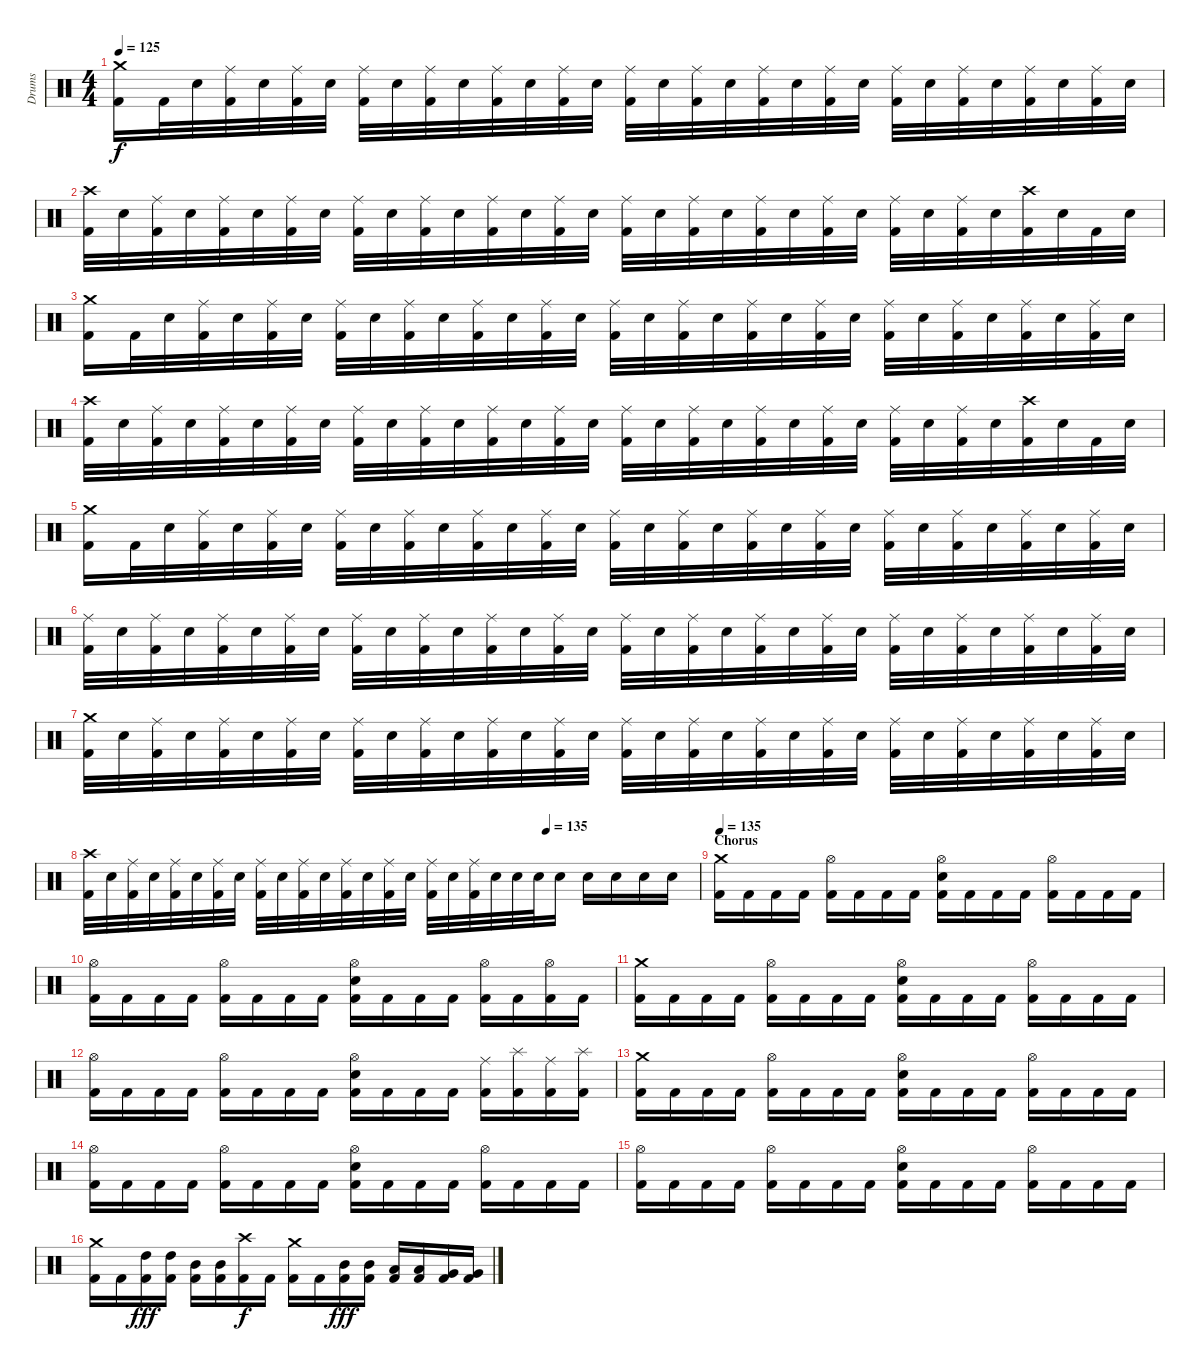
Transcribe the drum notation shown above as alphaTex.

\track ("Drums" "Drums") {instrument percussion}
\staff {score}
\articulation defaults
\ts (4 4)
\tempo 125
\clef neutral
\ks c
("Kick (hit) 2" "Crash medium (hit)").16{dy f} "Kick (hit) 2".32 "Electric Snare (hit)".32 ("Kick (hit) 2" "Ride (middle)").32 "Electric Snare (hit)".32 ("Kick (hit) 2" "Ride (middle)").32 "Electric Snare (hit)".32 ("Kick (hit) 2" "Ride (middle)").32 "Electric Snare (hit)".32 ("Kick (hit) 2" "Ride (middle)").32 "Electric Snare (hit)".32 ("Kick (hit) 2" "Ride (middle)").32 "Electric Snare (hit)".32 ("Kick (hit) 2" "Ride (middle)").32 "Electric Snare (hit)".32 ("Kick (hit) 2" "Ride (middle)").32 "Electric Snare (hit)".32 ("Kick (hit) 2" "Ride (middle)").32 "Electric Snare (hit)".32 ("Kick (hit) 2" "Ride (middle)").32 "Electric Snare (hit)".32 ("Kick (hit) 2" "Ride (middle)").32 "Electric Snare (hit)".32 ("Kick (hit) 2" "Ride (middle)").32 "Electric Snare (hit)".32 ("Kick (hit) 2" "Ride (middle)").32 "Electric Snare (hit)".32 ("Kick (hit) 2" "Ride (middle)").32 "Electric Snare (hit)".32 ("Kick (hit) 2" "Ride (middle)").32 "Electric Snare (hit)".32 |
("Kick (hit) 2" "Crash high (hit)").32 "Electric Snare (hit)".32 ("Kick (hit) 2" "Ride (middle)").32 "Electric Snare (hit)".32 ("Kick (hit) 2" "Ride (middle)").32 "Electric Snare (hit)".32 ("Kick (hit) 2" "Ride (middle)").32 "Electric Snare (hit)".32 ("Kick (hit) 2" "Ride (middle)").32 "Electric Snare (hit)".32 ("Kick (hit) 2" "Ride (middle)").32 "Electric Snare (hit)".32 ("Kick (hit) 2" "Ride (middle)").32 "Electric Snare (hit)".32 ("Kick (hit) 2" "Ride (middle)").32 "Electric Snare (hit)".32 ("Kick (hit) 2" "Ride (middle)").32 "Electric Snare (hit)".32 ("Kick (hit) 2" "Ride (middle)").32 "Electric Snare (hit)".32 ("Kick (hit) 2" "Ride (middle)").32 "Electric Snare (hit)".32 ("Kick (hit) 2" "Ride (middle)").32 "Electric Snare (hit)".32 ("Kick (hit) 2" "Ride (middle)").32 "Electric Snare (hit)".32 ("Kick (hit) 2" "Ride (middle)").32 "Electric Snare (hit)".32 ("Kick (hit) 2" "Crash high (hit)").32 "Electric Snare (hit)".32 "Kick (hit) 2".32 "Electric Snare (hit)".32 |
("Kick (hit) 2" "Crash medium (hit)").16 "Kick (hit) 2".32 "Electric Snare (hit)".32 ("Kick (hit) 2" "Ride (middle)").32 "Electric Snare (hit)".32 ("Kick (hit) 2" "Ride (middle)").32 "Electric Snare (hit)".32 ("Kick (hit) 2" "Ride (middle)").32 "Electric Snare (hit)".32 ("Kick (hit) 2" "Ride (middle)").32 "Electric Snare (hit)".32 ("Kick (hit) 2" "Ride (middle)").32 "Electric Snare (hit)".32 ("Kick (hit) 2" "Ride (middle)").32 "Electric Snare (hit)".32 ("Kick (hit) 2" "Ride (middle)").32 "Electric Snare (hit)".32 ("Kick (hit) 2" "Ride (middle)").32 "Electric Snare (hit)".32 ("Kick (hit) 2" "Ride (middle)").32 "Electric Snare (hit)".32 ("Kick (hit) 2" "Ride (middle)").32 "Electric Snare (hit)".32 ("Kick (hit) 2" "Ride (middle)").32 "Electric Snare (hit)".32 ("Kick (hit) 2" "Ride (middle)").32 "Electric Snare (hit)".32 ("Kick (hit) 2" "Ride (middle)").32 "Electric Snare (hit)".32 ("Kick (hit) 2" "Ride (middle)").32 "Electric Snare (hit)".32 |
("Kick (hit) 2" "Crash high (hit)").32 "Electric Snare (hit)".32 ("Kick (hit) 2" "Ride (middle)").32 "Electric Snare (hit)".32 ("Kick (hit) 2" "Ride (middle)").32 "Electric Snare (hit)".32 ("Kick (hit) 2" "Ride (middle)").32 "Electric Snare (hit)".32 ("Kick (hit) 2" "Ride (middle)").32 "Electric Snare (hit)".32 ("Kick (hit) 2" "Ride (middle)").32 "Electric Snare (hit)".32 ("Kick (hit) 2" "Ride (middle)").32 "Electric Snare (hit)".32 ("Kick (hit) 2" "Ride (middle)").32 "Electric Snare (hit)".32 ("Kick (hit) 2" "Ride (middle)").32 "Electric Snare (hit)".32 ("Kick (hit) 2" "Ride (middle)").32 "Electric Snare (hit)".32 ("Kick (hit) 2" "Ride (middle)").32 "Electric Snare (hit)".32 ("Kick (hit) 2" "Ride (middle)").32 "Electric Snare (hit)".32 ("Kick (hit) 2" "Ride (middle)").32 "Electric Snare (hit)".32 ("Kick (hit) 2" "Ride (middle)").32 "Electric Snare (hit)".32 ("Kick (hit) 2" "Crash high (hit)").32 "Electric Snare (hit)".32 "Kick (hit) 2".32 "Electric Snare (hit)".32 |
("Kick (hit) 2" "Crash medium (hit)").16 "Kick (hit) 2".32 "Electric Snare (hit)".32 ("Kick (hit) 2" "Ride (middle)").32 "Electric Snare (hit)".32 ("Kick (hit) 2" "Ride (middle)").32 "Electric Snare (hit)".32 ("Kick (hit) 2" "Ride (middle)").32 "Electric Snare (hit)".32 ("Kick (hit) 2" "Ride (middle)").32 "Electric Snare (hit)".32 ("Kick (hit) 2" "Ride (middle)").32 "Electric Snare (hit)".32 ("Kick (hit) 2" "Ride (middle)").32 "Electric Snare (hit)".32 ("Kick (hit) 2" "Ride (middle)").32 "Electric Snare (hit)".32 ("Kick (hit) 2" "Ride (middle)").32 "Electric Snare (hit)".32 ("Kick (hit) 2" "Ride (middle)").32 "Electric Snare (hit)".32 ("Kick (hit) 2" "Ride (middle)").32 "Electric Snare (hit)".32 ("Kick (hit) 2" "Ride (middle)").32 "Electric Snare (hit)".32 ("Kick (hit) 2" "Ride (middle)").32 "Electric Snare (hit)".32 ("Kick (hit) 2" "Ride (middle)").32 "Electric Snare (hit)".32 ("Kick (hit) 2" "Ride (middle)").32 "Electric Snare (hit)".32 |
("Kick (hit) 2" "Ride (middle)").32 "Electric Snare (hit)".32 ("Kick (hit) 2" "Ride (middle)").32 "Electric Snare (hit)".32 ("Kick (hit) 2" "Ride (middle)").32 "Electric Snare (hit)".32 ("Kick (hit) 2" "Ride (middle)").32 "Electric Snare (hit)".32 ("Kick (hit) 2" "Ride (middle)").32 "Electric Snare (hit)".32 ("Kick (hit) 2" "Ride (middle)").32 "Electric Snare (hit)".32 ("Kick (hit) 2" "Ride (middle)").32 "Electric Snare (hit)".32 ("Kick (hit) 2" "Ride (middle)").32 "Electric Snare (hit)".32 ("Kick (hit) 2" "Ride (middle)").32 "Electric Snare (hit)".32 ("Kick (hit) 2" "Ride (middle)").32 "Electric Snare (hit)".32 ("Kick (hit) 2" "Ride (middle)").32 "Electric Snare (hit)".32 ("Kick (hit) 2" "Ride (middle)").32 "Electric Snare (hit)".32 ("Kick (hit) 2" "Ride (middle)").32 "Electric Snare (hit)".32 ("Kick (hit) 2" "Ride (middle)").32 "Electric Snare (hit)".32 ("Kick (hit) 2" "Ride (middle)").32 "Electric Snare (hit)".32 ("Kick (hit) 2" "Ride (middle)").32 "Electric Snare (hit)".32 |
("Kick (hit) 2" "Crash medium (hit)").32 "Electric Snare (hit)".32 ("Kick (hit) 2" "Ride (middle)").32 "Electric Snare (hit)".32 ("Kick (hit) 2" "Ride (middle)").32 "Electric Snare (hit)".32 ("Kick (hit) 2" "Ride (middle)").32 "Electric Snare (hit)".32 ("Kick (hit) 2" "Ride (middle)").32 "Electric Snare (hit)".32 ("Kick (hit) 2" "Ride (middle)").32 "Electric Snare (hit)".32 ("Kick (hit) 2" "Ride (middle)").32 "Electric Snare (hit)".32 ("Kick (hit) 2" "Ride (middle)").32 "Electric Snare (hit)".32 ("Kick (hit) 2" "Ride (middle)").32 "Electric Snare (hit)".32 ("Kick (hit) 2" "Ride (middle)").32 "Electric Snare (hit)".32 ("Kick (hit) 2" "Ride (middle)").32 "Electric Snare (hit)".32 ("Kick (hit) 2" "Ride (middle)").32 "Electric Snare (hit)".32 ("Kick (hit) 2" "Ride (middle)").32 "Electric Snare (hit)".32 ("Kick (hit) 2" "Ride (middle)").32 "Electric Snare (hit)".32 ("Kick (hit) 2" "Ride (middle)").32 "Electric Snare (hit)".32 ("Kick (hit) 2" "Ride (middle)").32 "Electric Snare (hit)".32 |
\tempo (135 0.75)
("Kick (hit) 2" "Crash high (hit)").32 "Electric Snare (hit)".32 ("Kick (hit) 2" "Ride (middle)").32 "Electric Snare (hit)".32 ("Kick (hit) 2" "Ride (middle)").32 "Electric Snare (hit)".32 ("Kick (hit) 2" "Ride (middle)").32 "Electric Snare (hit)".32 ("Kick (hit) 2" "Ride (middle)").32 "Electric Snare (hit)".32 ("Kick (hit) 2" "Ride (middle)").32 "Electric Snare (hit)".32 ("Kick (hit) 2" "Ride (middle)").32 "Electric Snare (hit)".32 ("Kick (hit) 2" "Ride (middle)").32 "Electric Snare (hit)".32 ("Kick (hit) 2" "Ride (middle)").32 "Electric Snare (hit)".32 ("Kick (hit) 2" "Ride (middle)").32 "Electric Snare (hit)".32 "Electric Snare (hit)".32 "Electric Snare (hit)".32 "Electric Snare (hit)".16 "Electric Snare (hit)".16 "Electric Snare (hit)".16 "Electric Snare (hit)".16 "Electric Snare (hit)".16 |
\section ("" "Chorus")
\tempo 135
("Kick (hit) 2" "Crash medium (hit)").16 "Kick (hit) 2".16 "Kick (hit) 2".16 "Kick (hit) 2".16 ("Kick (hit) 2" "Hi-Hat (open)").16 "Kick (hit) 2".16 "Kick (hit) 2".16 "Kick (hit) 2".16 ("Kick (hit) 2" "Electric Snare (hit)" "Hi-Hat (open)").16 "Kick (hit) 2".16 "Kick (hit) 2".16 "Kick (hit) 2".16 ("Kick (hit) 2" "Hi-Hat (open)").16 "Kick (hit) 2".16 "Kick (hit) 2".16 "Kick (hit) 2".16 |
("Kick (hit) 2" "Hi-Hat (open)").16 "Kick (hit) 2".16 "Kick (hit) 2".16 "Kick (hit) 2".16 ("Kick (hit) 2" "Hi-Hat (open)").16 "Kick (hit) 2".16 "Kick (hit) 2".16 "Kick (hit) 2".16 ("Kick (hit) 2" "Electric Snare (hit)" "Hi-Hat (open)").16 "Kick (hit) 2".16 "Kick (hit) 2".16 "Kick (hit) 2".16 ("Kick (hit) 2" "Hi-Hat (open)").16 "Kick (hit) 2".16 ("Kick (hit) 2" "Hi-Hat (open)").16 "Kick (hit) 2".16 |
("Kick (hit) 2" "Crash medium (hit)").16 "Kick (hit) 2".16 "Kick (hit) 2".16 "Kick (hit) 2".16 ("Kick (hit) 2" "Hi-Hat (open)").16 "Kick (hit) 2".16 "Kick (hit) 2".16 "Kick (hit) 2".16 ("Kick (hit) 2" "Electric Snare (hit)" "Hi-Hat (open)").16 "Kick (hit) 2".16 "Kick (hit) 2".16 "Kick (hit) 2".16 ("Kick (hit) 2" "Hi-Hat (open)").16 "Kick (hit) 2".16 "Kick (hit) 2".16 "Kick (hit) 2".16 |
("Kick (hit) 2" "Hi-Hat (open)").16 "Kick (hit) 2".16 "Kick (hit) 2".16 "Kick (hit) 2".16 ("Kick (hit) 2" "Hi-Hat (open)").16 "Kick (hit) 2".16 "Kick (hit) 2".16 "Kick (hit) 2".16 ("Kick (hit) 2" "Electric Snare (hit)" "Hi-Hat (open)").16 "Kick (hit) 2".16 "Kick (hit) 2".16 "Kick (hit) 2".16 ("Kick (hit) 2" "Ride (middle)").16 ("Kick (hit) 2" "Splash (hit)").16 ("Kick (hit) 2" "Ride (middle)").16 ("Kick (hit) 2" "Splash (hit)").16 |
("Kick (hit) 2" "Crash medium (hit)").16 "Kick (hit) 2".16 "Kick (hit) 2".16 "Kick (hit) 2".16 ("Kick (hit) 2" "Hi-Hat (open)").16 "Kick (hit) 2".16 "Kick (hit) 2".16 "Kick (hit) 2".16 ("Kick (hit) 2" "Electric Snare (hit)" "Hi-Hat (open)").16 "Kick (hit) 2".16 "Kick (hit) 2".16 "Kick (hit) 2".16 ("Kick (hit) 2" "Hi-Hat (open)").16 "Kick (hit) 2".16 "Kick (hit) 2".16 "Kick (hit) 2".16 |
("Kick (hit) 2" "Hi-Hat (open)").16 "Kick (hit) 2".16 "Kick (hit) 2".16 "Kick (hit) 2".16 ("Kick (hit) 2" "Hi-Hat (open)").16 "Kick (hit) 2".16 "Kick (hit) 2".16 "Kick (hit) 2".16 ("Kick (hit) 2" "Electric Snare (hit)" "Hi-Hat (open)").16 "Kick (hit) 2".16 "Kick (hit) 2".16 "Kick (hit) 2".16 ("Kick (hit) 2" "Hi-Hat (open)").16 "Kick (hit) 2".16 "Kick (hit) 2".16 "Kick (hit) 2".16 |
("Kick (hit) 2" "Hi-Hat (open)").16 "Kick (hit) 2".16 "Kick (hit) 2".16 "Kick (hit) 2".16 ("Kick (hit) 2" "Hi-Hat (open)").16 "Kick (hit) 2".16 "Kick (hit) 2".16 "Kick (hit) 2".16 ("Kick (hit) 2" "Electric Snare (hit)" "Hi-Hat (open)").16 "Kick (hit) 2".16 "Kick (hit) 2".16 "Kick (hit) 2".16 ("Kick (hit) 2" "Hi-Hat (open)").16 "Kick (hit) 2".16 "Kick (hit) 2".16 "Kick (hit) 2".16 |
("Kick (hit) 2" "Crash medium (hit)").16 "Kick (hit) 2".16 ("Kick (hit) 2" "High Tom (hit)").16{dy fff} ("Kick (hit) 2" "High Tom (hit)").16 ("Kick (hit) 2" "Mid Tom (hit)").16 ("Kick (hit) 2" "Mid Tom (hit)").16 ("Kick (hit) 2" "Crash high (hit)").16{dy f} "Kick (hit) 2".16 ("Kick (hit) 2" "Crash medium (hit)").16 "Kick (hit) 2".16 ("Kick (hit) 2" "Mid Tom (hit)").16{dy fff} ("Kick (hit) 2" "Mid Tom (hit)").16 ("Kick (hit) 2" "Low Tom (hit)").16 ("Kick (hit) 2" "Low Tom (hit)").16 ("Kick (hit) 2" "Very Low Tom (hit)").16 ("Kick (hit) 2" "Very Low Tom (hit)").16
